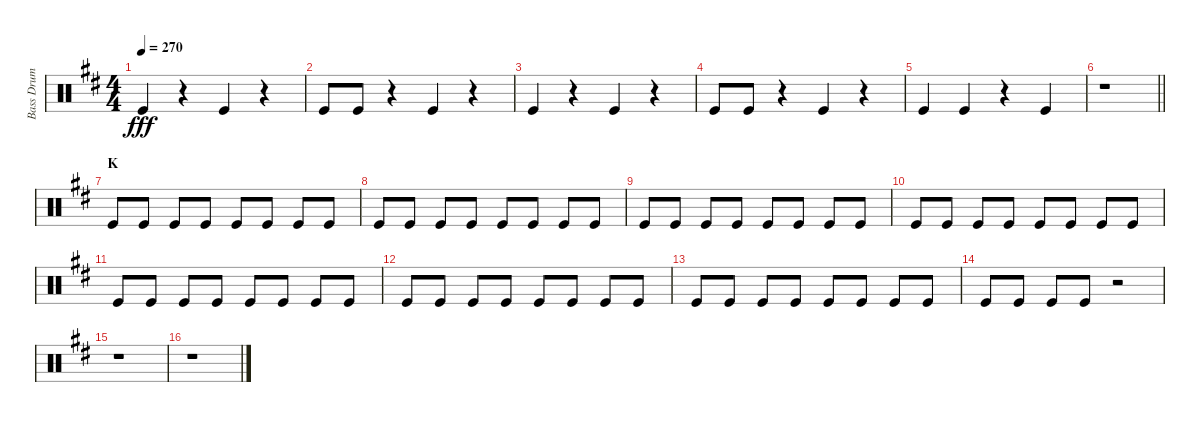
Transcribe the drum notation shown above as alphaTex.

\track ("Bass Drum" "Bass Drum") {instrument percussion}
\staff {score}
\articulation defaults
\ts (4 4)
\tempo 270
\clef neutral
\ks d "Kick (hit)".4{dy fff}
r.4 "Kick (hit)".4 r.4 |
"Kick (hit)".8 "Kick (hit)".8 r.4 "Kick (hit)".4 r.4 |
"Kick (hit)".4 r.4 "Kick (hit)".4 r.4 |
"Kick (hit)".8 "Kick (hit)".8 r.4 "Kick (hit)".4 r.4 |
"Kick (hit)".4 "Kick (hit)".4 r.4 "Kick (hit)".4 |
\barLineRight lightlight
r.1 |
\section ("" "K")
"Kick (hit)".8 "Kick (hit)".8 "Kick (hit)".8 "Kick (hit)".8 "Kick (hit)".8 "Kick (hit)".8 "Kick (hit)".8 "Kick (hit)".8 |
"Kick (hit)".8 "Kick (hit)".8 "Kick (hit)".8 "Kick (hit)".8 "Kick (hit)".8 "Kick (hit)".8 "Kick (hit)".8 "Kick (hit)".8 |
"Kick (hit)".8 "Kick (hit)".8 "Kick (hit)".8 "Kick (hit)".8 "Kick (hit)".8 "Kick (hit)".8 "Kick (hit)".8 "Kick (hit)".8 |
"Kick (hit)".8 "Kick (hit)".8 "Kick (hit)".8 "Kick (hit)".8 "Kick (hit)".8 "Kick (hit)".8 "Kick (hit)".8 "Kick (hit)".8 |
"Kick (hit)".8 "Kick (hit)".8 "Kick (hit)".8 "Kick (hit)".8 "Kick (hit)".8 "Kick (hit)".8 "Kick (hit)".8 "Kick (hit)".8 |
"Kick (hit)".8 "Kick (hit)".8 "Kick (hit)".8 "Kick (hit)".8 "Kick (hit)".8 "Kick (hit)".8 "Kick (hit)".8 "Kick (hit)".8 |
"Kick (hit)".8 "Kick (hit)".8 "Kick (hit)".8 "Kick (hit)".8 "Kick (hit)".8 "Kick (hit)".8 "Kick (hit)".8 "Kick (hit)".8 |
"Kick (hit)".8 "Kick (hit)".8 "Kick (hit)".8 "Kick (hit)".8 r.2 |
r.1 |
r.1
